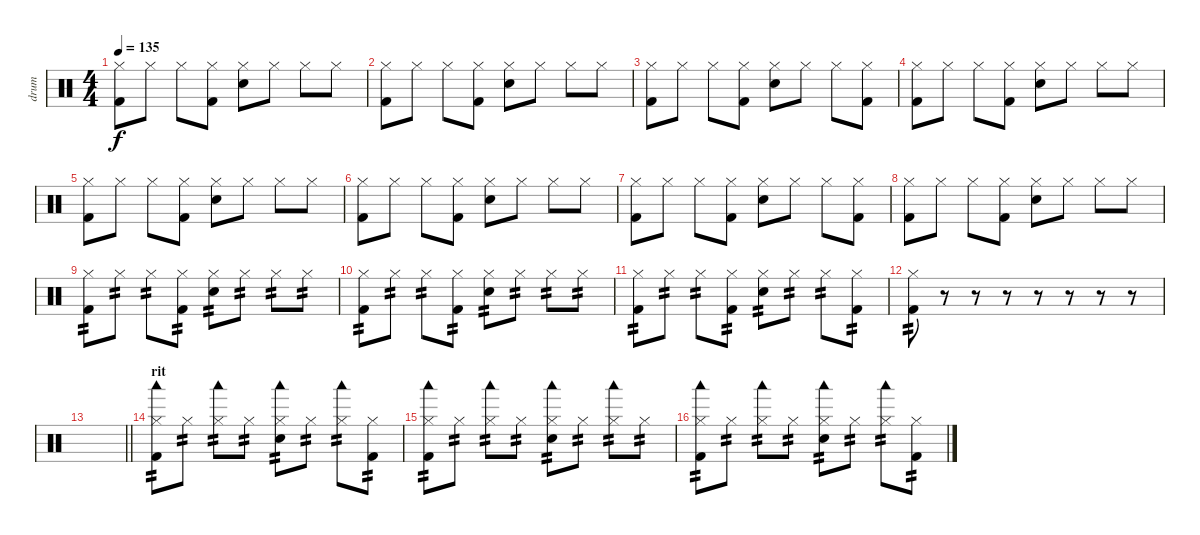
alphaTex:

\track ("drum" "drum") {instrument percussion}
\staff {score}
\articulation defaults
\ts (4 4)
\tempo 135
\clef neutral
\ks c
("Hi-Hat (closed)" "Kick (hit) 2").8{dy f} "Hi-Hat (closed)".8 "Hi-Hat (closed)".8 ("Hi-Hat (closed)" "Kick (hit) 2").8 ("Hi-Hat (closed)" "Snare (hit) 2").8 "Hi-Hat (closed)".8 "Hi-Hat (closed)".8 "Hi-Hat (closed)".8 |
("Hi-Hat (closed)" "Kick (hit) 2").8 "Hi-Hat (closed)".8 "Hi-Hat (closed)".8 ("Hi-Hat (closed)" "Kick (hit) 2").8 ("Hi-Hat (closed)" "Snare (hit) 2").8 "Hi-Hat (closed)".8 "Hi-Hat (closed)".8 "Hi-Hat (closed)".8 |
("Hi-Hat (closed)" "Kick (hit) 2").8 "Hi-Hat (closed)".8 "Hi-Hat (closed)".8 ("Hi-Hat (closed)" "Kick (hit) 2").8 ("Hi-Hat (closed)" "Snare (hit) 2").8 "Hi-Hat (closed)".8 "Hi-Hat (closed)".8 ("Hi-Hat (closed)" "Kick (hit) 2").8 |
("Hi-Hat (closed)" "Kick (hit) 2").8 "Hi-Hat (closed)".8 "Hi-Hat (closed)".8 ("Hi-Hat (closed)" "Kick (hit) 2").8 ("Hi-Hat (closed)" "Snare (hit) 2").8 "Hi-Hat (closed)".8 "Hi-Hat (closed)".8 "Hi-Hat (closed)".8 |
("Hi-Hat (closed)" "Kick (hit) 2").8 "Hi-Hat (closed)".8 "Hi-Hat (closed)".8 ("Hi-Hat (closed)" "Kick (hit) 2").8 ("Hi-Hat (closed)" "Snare (hit) 2").8 "Hi-Hat (closed)".8 "Hi-Hat (closed)".8 "Hi-Hat (closed)".8 |
("Hi-Hat (closed)" "Kick (hit) 2").8 "Hi-Hat (closed)".8 "Hi-Hat (closed)".8 ("Hi-Hat (closed)" "Kick (hit) 2").8 ("Hi-Hat (closed)" "Snare (hit) 2").8 "Hi-Hat (closed)".8 "Hi-Hat (closed)".8 "Hi-Hat (closed)".8 |
("Hi-Hat (closed)" "Kick (hit) 2").8 "Hi-Hat (closed)".8 "Hi-Hat (closed)".8 ("Hi-Hat (closed)" "Kick (hit) 2").8 ("Hi-Hat (closed)" "Snare (hit) 2").8 "Hi-Hat (closed)".8 "Hi-Hat (closed)".8 ("Hi-Hat (closed)" "Kick (hit) 2").8 |
("Hi-Hat (closed)" "Kick (hit) 2").8 "Hi-Hat (closed)".8 "Hi-Hat (closed)".8 ("Hi-Hat (closed)" "Kick (hit) 2").8 ("Hi-Hat (closed)" "Snare (hit) 2").8 "Hi-Hat (closed)".8 "Hi-Hat (closed)".8 "Hi-Hat (closed)".8 |
("Hi-Hat (closed)" "Kick (hit) 2").8{tp 2} "Hi-Hat (closed)".8{tp 2} "Hi-Hat (closed)".8{tp 2} ("Hi-Hat (closed)" "Kick (hit) 2").8{tp 2} ("Hi-Hat (closed)" "Snare (hit) 2").8{tp 2} "Hi-Hat (closed)".8{tp 2} "Hi-Hat (closed)".8{tp 2} "Hi-Hat (closed)".8{tp 2} |
("Hi-Hat (closed)" "Kick (hit) 2").8{tp 2} "Hi-Hat (closed)".8{tp 2} "Hi-Hat (closed)".8{tp 2} ("Hi-Hat (closed)" "Kick (hit) 2").8{tp 2} ("Hi-Hat (closed)" "Snare (hit) 2").8{tp 2} "Hi-Hat (closed)".8{tp 2} "Hi-Hat (closed)".8{tp 2} "Hi-Hat (closed)".8{tp 2} |
("Hi-Hat (closed)" "Kick (hit) 2").8{tp 2} "Hi-Hat (closed)".8{tp 2} "Hi-Hat (closed)".8{tp 2} ("Hi-Hat (closed)" "Kick (hit) 2").8{tp 2} ("Hi-Hat (closed)" "Snare (hit) 2").8{tp 2} "Hi-Hat (closed)".8{tp 2} "Hi-Hat (closed)".8{tp 2} ("Hi-Hat (closed)" "Kick (hit) 2").8{tp 2} |
("Hi-Hat (closed)" "Kick (hit) 2").8{tp 2} r.8 r.8 r.8 r.8 r.8 r.8 r.8 |
\barLineRight lightlight
|
\section ("" "rit")
("Hi-Hat (closed)" "Woodblock low (hit)" "Kick (hit) 2").8{tp 2} "Hi-Hat (closed)".8{tp 2} ("Hi-Hat (closed)" "Woodblock low (hit)").8{tp 2} "Hi-Hat (closed)".8{tp 2} ("Hi-Hat (closed)" "Woodblock low (hit)" "Snare (hit) 2").8{tp 2} "Hi-Hat (closed)".8{tp 2} ("Hi-Hat (closed)" "Woodblock low (hit)").8{tp 2} ("Hi-Hat (closed)" "Kick (hit) 2").8{tp 2} |
("Hi-Hat (closed)" "Woodblock low (hit)" "Kick (hit) 2").8{tp 2} "Hi-Hat (closed)".8{tp 2} ("Hi-Hat (closed)" "Woodblock low (hit)").8{tp 2} "Hi-Hat (closed)".8{tp 2} ("Hi-Hat (closed)" "Woodblock low (hit)" "Snare (hit) 2").8{tp 2} "Hi-Hat (closed)".8{tp 2} ("Hi-Hat (closed)" "Woodblock low (hit)").8{tp 2} "Hi-Hat (closed)".8{tp 2} |
("Hi-Hat (closed)" "Woodblock low (hit)" "Kick (hit) 2").8{tp 2} "Hi-Hat (closed)".8{tp 2} ("Hi-Hat (closed)" "Woodblock low (hit)").8{tp 2} "Hi-Hat (closed)".8{tp 2} ("Hi-Hat (closed)" "Woodblock low (hit)" "Snare (hit) 2").8{tp 2} "Hi-Hat (closed)".8{tp 2} ("Hi-Hat (closed)" "Woodblock low (hit)").8{tp 2} ("Hi-Hat (closed)" "Kick (hit) 2").8{tp 2}
